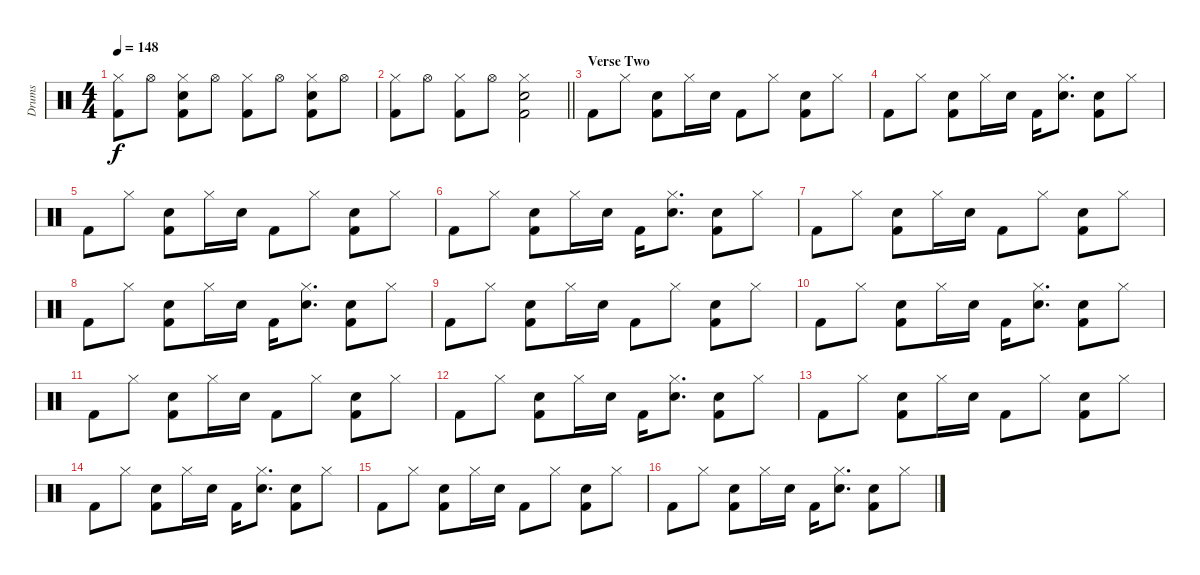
\track ("Drums" "Drums") {instrument percussion}
\staff {score}
\articulation defaults
\ts (4 4)
\tempo 148
\clef neutral
\ks c
("Hi-Hat (closed)" "Kick (hit) 2").8{dy f} "Hi-Hat (open)".8 ("Hi-Hat (closed)" "Electric Snare (hit)" "Kick (hit) 2").8 "Hi-Hat (open)".8 ("Hi-Hat (closed)" "Kick (hit) 2").8 "Hi-Hat (open)".8 ("Hi-Hat (closed)" "Electric Snare (hit)" "Kick (hit) 2").8 "Hi-Hat (open)".8 |
\barLineRight lightlight
("Hi-Hat (closed)" "Kick (hit) 2").8 "Hi-Hat (open)".8 ("Hi-Hat (closed)" "Kick (hit) 2").8 "Hi-Hat (open)".8 ("Hi-Hat (closed)" "Electric Snare (hit)" "Kick (hit) 2").2 |
\section ("" "Verse Two")
"Kick (hit) 2".8 "Hi-Hat (closed)".8 ("Electric Snare (hit)" "Kick (hit) 2").8 "Hi-Hat (closed)".16 "Electric Snare (hit)".16 "Kick (hit) 2".8 "Hi-Hat (closed)".8 ("Electric Snare (hit)" "Kick (hit) 2").8 "Hi-Hat (closed)".8 |
"Kick (hit) 2".8 "Hi-Hat (closed)".8 ("Electric Snare (hit)" "Kick (hit) 2").8 "Hi-Hat (closed)".16 "Electric Snare (hit)".16 "Kick (hit) 2".16 ("Hi-Hat (closed)" "Electric Snare (hit)").8{d} ("Electric Snare (hit)" "Kick (hit) 2").8 "Hi-Hat (closed)".8 |
"Kick (hit) 2".8 "Hi-Hat (closed)".8 ("Electric Snare (hit)" "Kick (hit) 2").8 "Hi-Hat (closed)".16 "Electric Snare (hit)".16 "Kick (hit) 2".8 "Hi-Hat (closed)".8 ("Electric Snare (hit)" "Kick (hit) 2").8 "Hi-Hat (closed)".8 |
"Kick (hit) 2".8 "Hi-Hat (closed)".8 ("Electric Snare (hit)" "Kick (hit) 2").8 "Hi-Hat (closed)".16 "Electric Snare (hit)".16 "Kick (hit) 2".16 ("Hi-Hat (closed)" "Electric Snare (hit)").8{d} ("Electric Snare (hit)" "Kick (hit) 2").8 "Hi-Hat (closed)".8 |
"Kick (hit) 2".8 "Hi-Hat (closed)".8 ("Electric Snare (hit)" "Kick (hit) 2").8 "Hi-Hat (closed)".16 "Electric Snare (hit)".16 "Kick (hit) 2".8 "Hi-Hat (closed)".8 ("Electric Snare (hit)" "Kick (hit) 2").8 "Hi-Hat (closed)".8 |
"Kick (hit) 2".8 "Hi-Hat (closed)".8 ("Electric Snare (hit)" "Kick (hit) 2").8 "Hi-Hat (closed)".16 "Electric Snare (hit)".16 "Kick (hit) 2".16 ("Hi-Hat (closed)" "Electric Snare (hit)").8{d} ("Electric Snare (hit)" "Kick (hit) 2").8 "Hi-Hat (closed)".8 |
"Kick (hit) 2".8 "Hi-Hat (closed)".8 ("Electric Snare (hit)" "Kick (hit) 2").8 "Hi-Hat (closed)".16 "Electric Snare (hit)".16 "Kick (hit) 2".8 "Hi-Hat (closed)".8 ("Electric Snare (hit)" "Kick (hit) 2").8 "Hi-Hat (closed)".8 |
"Kick (hit) 2".8 "Hi-Hat (closed)".8 ("Electric Snare (hit)" "Kick (hit) 2").8 "Hi-Hat (closed)".16 "Electric Snare (hit)".16 "Kick (hit) 2".16 ("Hi-Hat (closed)" "Electric Snare (hit)").8{d} ("Electric Snare (hit)" "Kick (hit) 2").8 "Hi-Hat (closed)".8 |
"Kick (hit) 2".8 "Hi-Hat (closed)".8 ("Electric Snare (hit)" "Kick (hit) 2").8 "Hi-Hat (closed)".16 "Electric Snare (hit)".16 "Kick (hit) 2".8 "Hi-Hat (closed)".8 ("Electric Snare (hit)" "Kick (hit) 2").8 "Hi-Hat (closed)".8 |
"Kick (hit) 2".8 "Hi-Hat (closed)".8 ("Electric Snare (hit)" "Kick (hit) 2").8 "Hi-Hat (closed)".16 "Electric Snare (hit)".16 "Kick (hit) 2".16 ("Hi-Hat (closed)" "Electric Snare (hit)").8{d} ("Electric Snare (hit)" "Kick (hit) 2").8 "Hi-Hat (closed)".8 |
"Kick (hit) 2".8 "Hi-Hat (closed)".8 ("Electric Snare (hit)" "Kick (hit) 2").8 "Hi-Hat (closed)".16 "Electric Snare (hit)".16 "Kick (hit) 2".8 "Hi-Hat (closed)".8 ("Electric Snare (hit)" "Kick (hit) 2").8 "Hi-Hat (closed)".8 |
"Kick (hit) 2".8 "Hi-Hat (closed)".8 ("Electric Snare (hit)" "Kick (hit) 2").8 "Hi-Hat (closed)".16 "Electric Snare (hit)".16 "Kick (hit) 2".16 ("Hi-Hat (closed)" "Electric Snare (hit)").8{d} ("Electric Snare (hit)" "Kick (hit) 2").8 "Hi-Hat (closed)".8 |
"Kick (hit) 2".8 "Hi-Hat (closed)".8 ("Electric Snare (hit)" "Kick (hit) 2").8 "Hi-Hat (closed)".16 "Electric Snare (hit)".16 "Kick (hit) 2".8 "Hi-Hat (closed)".8 ("Electric Snare (hit)" "Kick (hit) 2").8 "Hi-Hat (closed)".8 |
"Kick (hit) 2".8 "Hi-Hat (closed)".8 ("Electric Snare (hit)" "Kick (hit) 2").8 "Hi-Hat (closed)".16 "Electric Snare (hit)".16 "Kick (hit) 2".16 ("Hi-Hat (closed)" "Electric Snare (hit)").8{d} ("Electric Snare (hit)" "Kick (hit) 2").8 "Hi-Hat (closed)".8
